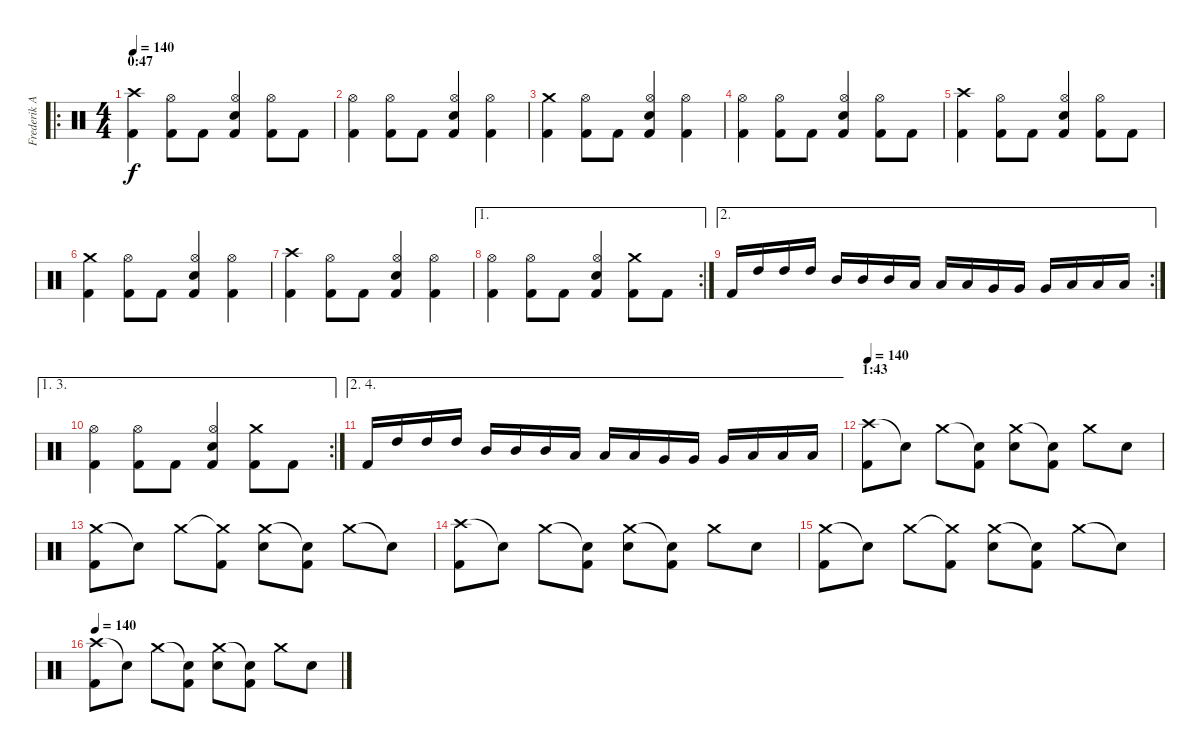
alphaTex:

\track ("Frederik Anderson" "Frederik A") {instrument percussion}
\staff {score}
\articulation defaults
\ro
\ts (4 4)
\section ("" "0:47")
\tempo 140
\clef neutral
\ks c
("Crash high (hit)" "Kick (hit) 2").4{dy f} ("Hi-Hat (open)" "Kick (hit) 2").8 "Kick (hit) 2".8 ("Hi-Hat (open)" "Electric Snare (hit)" "Kick (hit) 2").4 ("Hi-Hat (open)" "Kick (hit) 2").8 "Kick (hit) 2".8 |
("Hi-Hat (open)" "Kick (hit) 2").4 ("Hi-Hat (open)" "Kick (hit) 2").8 "Kick (hit) 2".8 ("Hi-Hat (open)" "Electric Snare (hit)" "Kick (hit) 2").4 ("Hi-Hat (open)" "Kick (hit) 2").4 |
("Crash medium (hit)" "Kick (hit) 2").4 ("Hi-Hat (open)" "Kick (hit) 2").8 "Kick (hit) 2".8 ("Hi-Hat (open)" "Electric Snare (hit)" "Kick (hit) 2").4 ("Hi-Hat (open)" "Kick (hit) 2").4 |
("Hi-Hat (open)" "Kick (hit) 2").4 ("Hi-Hat (open)" "Kick (hit) 2").8 "Kick (hit) 2".8 ("Hi-Hat (open)" "Electric Snare (hit)" "Kick (hit) 2").4 ("Hi-Hat (open)" "Kick (hit) 2").8 "Kick (hit) 2".8 |
("Crash high (hit)" "Kick (hit) 2").4 ("Hi-Hat (open)" "Kick (hit) 2").8 "Kick (hit) 2".8 ("Hi-Hat (open)" "Electric Snare (hit)" "Kick (hit) 2").4 ("Hi-Hat (open)" "Kick (hit) 2").8 "Kick (hit) 2".8 |
("Crash medium (hit)" "Kick (hit) 2").4 ("Hi-Hat (open)" "Kick (hit) 2").8 "Kick (hit) 2".8 ("Hi-Hat (open)" "Electric Snare (hit)" "Kick (hit) 2").4 ("Hi-Hat (open)" "Kick (hit) 2").4 |
("Crash high (hit)" "Kick (hit) 2").4 ("Hi-Hat (open)" "Kick (hit) 2").8 "Kick (hit) 2".8 ("Hi-Hat (open)" "Electric Snare (hit)" "Kick (hit) 2").4 ("Hi-Hat (open)" "Kick (hit) 2").4 |
\ae 1
\rc 2
("Hi-Hat (open)" "Kick (hit) 2").4 ("Hi-Hat (open)" "Kick (hit) 2").8 "Kick (hit) 2".8 ("Hi-Hat (open)" "Electric Snare (hit)" "Kick (hit) 2").4 ("Crash medium (hit)" "Kick (hit) 2").8 "Kick (hit) 2".8 |
\ae 2
\rc 2 "Kick (hit) 2".16 "High Tom (hit)".16 "High Tom (hit)".16 "High Tom (hit)".16 "Mid Tom (hit)".16 "Mid Tom (hit)".16 "Mid Tom (hit)".16 "Low Tom (hit)".16 "Low Tom (hit)".16 "Low Tom (hit)".16 "Very Low Tom (hit)".16 "Very Low Tom (hit)".16 "Very Low Tom (hit)".16 "Low Floor Tom (hit)".16 "Low Floor Tom (hit)".16 "Low Floor Tom (hit)".16
|
\ae (1 3)
\rc 2
("Hi-Hat (open)" "Kick (hit) 2").4 ("Hi-Hat (open)" "Kick (hit) 2").8 "Kick (hit) 2".8 ("Hi-Hat (open)" "Electric Snare (hit)" "Kick (hit) 2").4 ("Crash medium (hit)" "Kick (hit) 2").8 "Kick (hit) 2".8 |
\ae (2 4)
"Kick (hit) 2".16 "High Tom (hit)".16 "High Tom (hit)".16 "High Tom (hit)".16 "Mid Tom (hit)".16 "Mid Tom (hit)".16 "Mid Tom (hit)".16 "Low Tom (hit)".16 "Low Tom (hit)".16 "Low Tom (hit)".16 "Very Low Tom (hit)".16 "Very Low Tom (hit)".16 "Very Low Tom (hit)".16 "Low Floor Tom (hit)".16 "Low Floor Tom (hit)".16 "Low Floor Tom (hit)".16 |
\section ("" "1:43")
\tempo 140
("Crash high (hit)" "Kick (hit) 2").8 "Snare (hit)"{t}.8 "Crash medium (hit)".8 ("Snare (hit)"{t} "Kick (hit) 2").8 ("Crash medium (hit)" "Electric Snare (hit)").8 ("Snare (hit)"{t} "Kick (hit) 2").8 "Crash medium (hit)".8 "Electric Snare (hit)".8 |
("Crash medium (hit)" "Kick (hit) 2").8 "Snare (hit)"{t}.8 "Crash medium (hit)".8 ("Crash medium (hit)"{t} "Kick (hit) 2").8 ("Crash medium (hit)" "Electric Snare (hit)").8 ("Snare (hit)"{t} "Kick (hit) 2").8 "Crash medium (hit)".8 "Snare (hit)"{t}.8 |
("Crash high (hit)" "Kick (hit) 2").8 "Snare (hit)"{t}.8 "Crash medium (hit)".8 ("Snare (hit)"{t} "Kick (hit) 2").8 ("Crash medium (hit)" "Electric Snare (hit)").8 ("Snare (hit)"{t} "Kick (hit) 2").8 "Crash medium (hit)".8 "Electric Snare (hit)".8 |
("Crash medium (hit)" "Kick (hit) 2").8 "Snare (hit)"{t}.8 "Crash medium (hit)".8 ("Crash medium (hit)"{t} "Kick (hit) 2").8 ("Crash medium (hit)" "Electric Snare (hit)").8 ("Snare (hit)"{t} "Kick (hit) 2").8 "Crash medium (hit)".8 "Snare (hit)"{t}.8 |
\tempo 140
("Crash high (hit)" "Kick (hit) 2").8 "Snare (hit)"{t}.8 "Crash medium (hit)".8 ("Snare (hit)"{t} "Kick (hit) 2").8 ("Crash medium (hit)" "Electric Snare (hit)").8 ("Snare (hit)"{t} "Kick (hit) 2").8 "Crash medium (hit)".8 "Electric Snare (hit)".8
